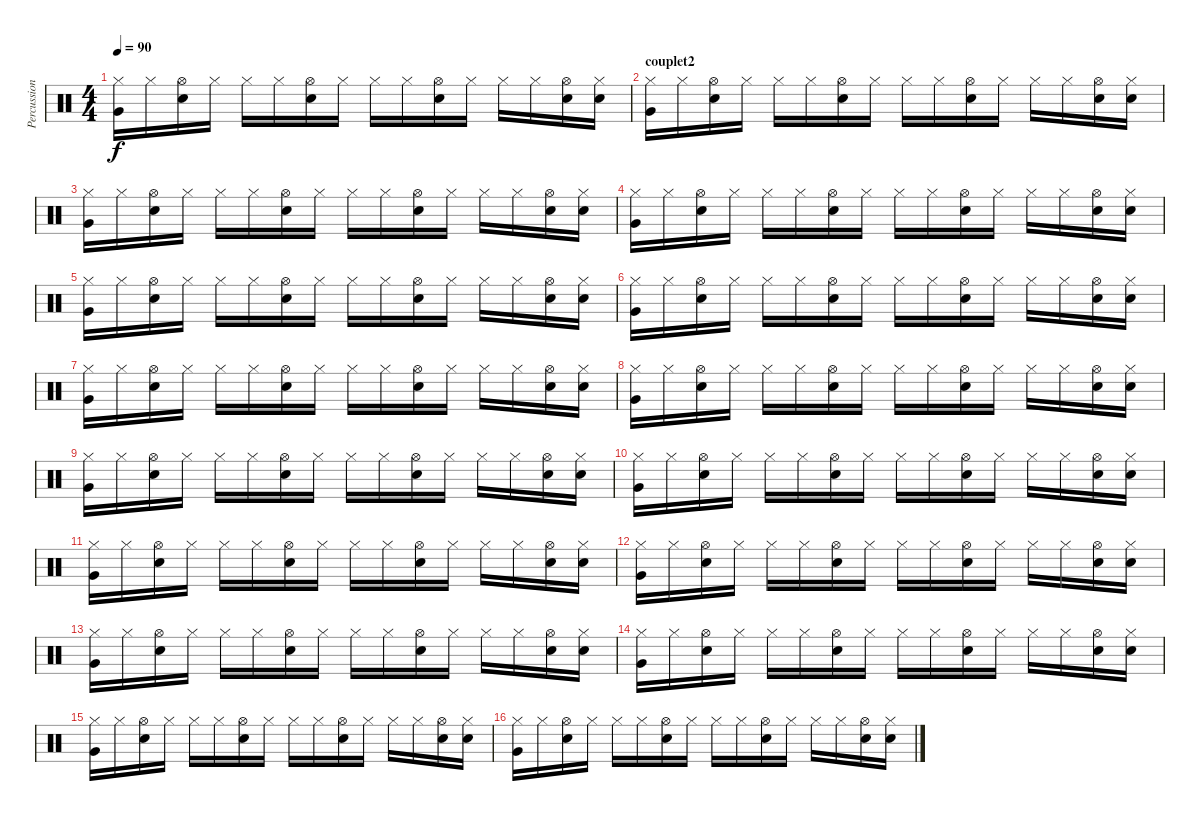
\track ("Percussions" "Percussion") {instrument percussion}
\staff {score}
\articulation defaults
\ts (4 4)
\tempo 90
\clef neutral
\ks aminor
("Hi-Hat (closed)" "Very Low Tom (hit)").16{dy f} "Hi-Hat (closed)".16 ("Snare (hit) 2" "Hi-Hat (open)").16 "Hi-Hat (closed)".16 "Hi-Hat (closed)".16 "Hi-Hat (closed)".16 ("Snare (hit) 2" "Hi-Hat (open)").16 "Hi-Hat (closed)".16 "Hi-Hat (closed)".16 "Hi-Hat (closed)".16 ("Snare (hit) 2" "Hi-Hat (open)").16 "Hi-Hat (closed)".16 "Hi-Hat (closed)".16 "Hi-Hat (closed)".16 ("Snare (hit) 2" "Hi-Hat (open)").16 ("Snare (hit) 2" "Hi-Hat (closed)").16 |
\section ("" "couplet2")
("Hi-Hat (closed)" "Very Low Tom (hit)").16 "Hi-Hat (closed)".16 ("Snare (hit) 2" "Hi-Hat (open)").16 "Hi-Hat (closed)".16 "Hi-Hat (closed)".16 "Hi-Hat (closed)".16 ("Snare (hit) 2" "Hi-Hat (open)").16 "Hi-Hat (closed)".16 "Hi-Hat (closed)".16 "Hi-Hat (closed)".16 ("Snare (hit) 2" "Hi-Hat (open)").16 "Hi-Hat (closed)".16 "Hi-Hat (closed)".16 "Hi-Hat (closed)".16 ("Snare (hit) 2" "Hi-Hat (open)").16 ("Snare (hit) 2" "Hi-Hat (closed)").16 |
("Hi-Hat (closed)" "Very Low Tom (hit)").16 "Hi-Hat (closed)".16 ("Snare (hit) 2" "Hi-Hat (open)").16 "Hi-Hat (closed)".16 "Hi-Hat (closed)".16 "Hi-Hat (closed)".16 ("Snare (hit) 2" "Hi-Hat (open)").16 "Hi-Hat (closed)".16 "Hi-Hat (closed)".16 "Hi-Hat (closed)".16 ("Snare (hit) 2" "Hi-Hat (open)").16 "Hi-Hat (closed)".16 "Hi-Hat (closed)".16 "Hi-Hat (closed)".16 ("Snare (hit) 2" "Hi-Hat (open)").16 ("Snare (hit) 2" "Hi-Hat (closed)").16 |
("Hi-Hat (closed)" "Very Low Tom (hit)").16 "Hi-Hat (closed)".16 ("Snare (hit) 2" "Hi-Hat (open)").16 "Hi-Hat (closed)".16 "Hi-Hat (closed)".16 "Hi-Hat (closed)".16 ("Snare (hit) 2" "Hi-Hat (open)").16 "Hi-Hat (closed)".16 "Hi-Hat (closed)".16 "Hi-Hat (closed)".16 ("Snare (hit) 2" "Hi-Hat (open)").16 "Hi-Hat (closed)".16 "Hi-Hat (closed)".16 "Hi-Hat (closed)".16 ("Snare (hit) 2" "Hi-Hat (open)").16 ("Snare (hit) 2" "Hi-Hat (closed)").16 |
("Hi-Hat (closed)" "Very Low Tom (hit)").16 "Hi-Hat (closed)".16 ("Snare (hit) 2" "Hi-Hat (open)").16 "Hi-Hat (closed)".16 "Hi-Hat (closed)".16 "Hi-Hat (closed)".16 ("Snare (hit) 2" "Hi-Hat (open)").16 "Hi-Hat (closed)".16 "Hi-Hat (closed)".16 "Hi-Hat (closed)".16 ("Snare (hit) 2" "Hi-Hat (open)").16 "Hi-Hat (closed)".16 "Hi-Hat (closed)".16 "Hi-Hat (closed)".16 ("Snare (hit) 2" "Hi-Hat (open)").16 ("Snare (hit) 2" "Hi-Hat (closed)").16 |
("Hi-Hat (closed)" "Very Low Tom (hit)").16 "Hi-Hat (closed)".16 ("Snare (hit) 2" "Hi-Hat (open)").16 "Hi-Hat (closed)".16 "Hi-Hat (closed)".16 "Hi-Hat (closed)".16 ("Snare (hit) 2" "Hi-Hat (open)").16 "Hi-Hat (closed)".16 "Hi-Hat (closed)".16 "Hi-Hat (closed)".16 ("Snare (hit) 2" "Hi-Hat (open)").16 "Hi-Hat (closed)".16 "Hi-Hat (closed)".16 "Hi-Hat (closed)".16 ("Snare (hit) 2" "Hi-Hat (open)").16 ("Snare (hit) 2" "Hi-Hat (closed)").16 |
("Hi-Hat (closed)" "Very Low Tom (hit)").16 "Hi-Hat (closed)".16 ("Snare (hit) 2" "Hi-Hat (open)").16 "Hi-Hat (closed)".16 "Hi-Hat (closed)".16 "Hi-Hat (closed)".16 ("Snare (hit) 2" "Hi-Hat (open)").16 "Hi-Hat (closed)".16 "Hi-Hat (closed)".16 "Hi-Hat (closed)".16 ("Snare (hit) 2" "Hi-Hat (open)").16 "Hi-Hat (closed)".16 "Hi-Hat (closed)".16 "Hi-Hat (closed)".16 ("Snare (hit) 2" "Hi-Hat (open)").16 ("Snare (hit) 2" "Hi-Hat (closed)").16 |
("Hi-Hat (closed)" "Very Low Tom (hit)").16 "Hi-Hat (closed)".16 ("Snare (hit) 2" "Hi-Hat (open)").16 "Hi-Hat (closed)".16 "Hi-Hat (closed)".16 "Hi-Hat (closed)".16 ("Snare (hit) 2" "Hi-Hat (open)").16 "Hi-Hat (closed)".16 "Hi-Hat (closed)".16 "Hi-Hat (closed)".16 ("Snare (hit) 2" "Hi-Hat (open)").16 "Hi-Hat (closed)".16 "Hi-Hat (closed)".16 "Hi-Hat (closed)".16 ("Snare (hit) 2" "Hi-Hat (open)").16 ("Snare (hit) 2" "Hi-Hat (closed)").16 |
("Hi-Hat (closed)" "Very Low Tom (hit)").16 "Hi-Hat (closed)".16 ("Snare (hit) 2" "Hi-Hat (open)").16 "Hi-Hat (closed)".16 "Hi-Hat (closed)".16 "Hi-Hat (closed)".16 ("Snare (hit) 2" "Hi-Hat (open)").16 "Hi-Hat (closed)".16 "Hi-Hat (closed)".16 "Hi-Hat (closed)".16 ("Snare (hit) 2" "Hi-Hat (open)").16 "Hi-Hat (closed)".16 "Hi-Hat (closed)".16 "Hi-Hat (closed)".16 ("Snare (hit) 2" "Hi-Hat (open)").16 ("Snare (hit) 2" "Hi-Hat (closed)").16 |
("Hi-Hat (closed)" "Very Low Tom (hit)").16 "Hi-Hat (closed)".16 ("Snare (hit) 2" "Hi-Hat (open)").16 "Hi-Hat (closed)".16 "Hi-Hat (closed)".16 "Hi-Hat (closed)".16 ("Snare (hit) 2" "Hi-Hat (open)").16 "Hi-Hat (closed)".16 "Hi-Hat (closed)".16 "Hi-Hat (closed)".16 ("Snare (hit) 2" "Hi-Hat (open)").16 "Hi-Hat (closed)".16 "Hi-Hat (closed)".16 "Hi-Hat (closed)".16 ("Snare (hit) 2" "Hi-Hat (open)").16 ("Snare (hit) 2" "Hi-Hat (closed)").16 |
("Hi-Hat (closed)" "Very Low Tom (hit)").16 "Hi-Hat (closed)".16 ("Snare (hit) 2" "Hi-Hat (open)").16 "Hi-Hat (closed)".16 "Hi-Hat (closed)".16 "Hi-Hat (closed)".16 ("Snare (hit) 2" "Hi-Hat (open)").16 "Hi-Hat (closed)".16 "Hi-Hat (closed)".16 "Hi-Hat (closed)".16 ("Snare (hit) 2" "Hi-Hat (open)").16 "Hi-Hat (closed)".16 "Hi-Hat (closed)".16 "Hi-Hat (closed)".16 ("Snare (hit) 2" "Hi-Hat (open)").16 ("Snare (hit) 2" "Hi-Hat (closed)").16 |
("Hi-Hat (closed)" "Very Low Tom (hit)").16 "Hi-Hat (closed)".16 ("Snare (hit) 2" "Hi-Hat (open)").16 "Hi-Hat (closed)".16 "Hi-Hat (closed)".16 "Hi-Hat (closed)".16 ("Snare (hit) 2" "Hi-Hat (open)").16 "Hi-Hat (closed)".16 "Hi-Hat (closed)".16 "Hi-Hat (closed)".16 ("Snare (hit) 2" "Hi-Hat (open)").16 "Hi-Hat (closed)".16 "Hi-Hat (closed)".16 "Hi-Hat (closed)".16 ("Snare (hit) 2" "Hi-Hat (open)").16 ("Snare (hit) 2" "Hi-Hat (closed)").16 |
("Hi-Hat (closed)" "Very Low Tom (hit)").16 "Hi-Hat (closed)".16 ("Snare (hit) 2" "Hi-Hat (open)").16 "Hi-Hat (closed)".16 "Hi-Hat (closed)".16 "Hi-Hat (closed)".16 ("Snare (hit) 2" "Hi-Hat (open)").16 "Hi-Hat (closed)".16 "Hi-Hat (closed)".16 "Hi-Hat (closed)".16 ("Snare (hit) 2" "Hi-Hat (open)").16 "Hi-Hat (closed)".16 "Hi-Hat (closed)".16 "Hi-Hat (closed)".16 ("Snare (hit) 2" "Hi-Hat (open)").16 ("Snare (hit) 2" "Hi-Hat (closed)").16 |
("Hi-Hat (closed)" "Very Low Tom (hit)").16 "Hi-Hat (closed)".16 ("Snare (hit) 2" "Hi-Hat (open)").16 "Hi-Hat (closed)".16 "Hi-Hat (closed)".16 "Hi-Hat (closed)".16 ("Snare (hit) 2" "Hi-Hat (open)").16 "Hi-Hat (closed)".16 "Hi-Hat (closed)".16 "Hi-Hat (closed)".16 ("Snare (hit) 2" "Hi-Hat (open)").16 "Hi-Hat (closed)".16 "Hi-Hat (closed)".16 "Hi-Hat (closed)".16 ("Snare (hit) 2" "Hi-Hat (open)").16 ("Snare (hit) 2" "Hi-Hat (closed)").16 |
("Hi-Hat (closed)" "Very Low Tom (hit)").16 "Hi-Hat (closed)".16 ("Snare (hit) 2" "Hi-Hat (open)").16 "Hi-Hat (closed)".16 "Hi-Hat (closed)".16 "Hi-Hat (closed)".16 ("Snare (hit) 2" "Hi-Hat (open)").16 "Hi-Hat (closed)".16 "Hi-Hat (closed)".16 "Hi-Hat (closed)".16 ("Snare (hit) 2" "Hi-Hat (open)").16 "Hi-Hat (closed)".16 "Hi-Hat (closed)".16 "Hi-Hat (closed)".16 ("Snare (hit) 2" "Hi-Hat (open)").16 ("Snare (hit) 2" "Hi-Hat (closed)").16 |
("Hi-Hat (closed)" "Very Low Tom (hit)").16 "Hi-Hat (closed)".16 ("Snare (hit) 2" "Hi-Hat (open)").16 "Hi-Hat (closed)".16 "Hi-Hat (closed)".16 "Hi-Hat (closed)".16 ("Snare (hit) 2" "Hi-Hat (open)").16 "Hi-Hat (closed)".16 "Hi-Hat (closed)".16 "Hi-Hat (closed)".16 ("Snare (hit) 2" "Hi-Hat (open)").16 "Hi-Hat (closed)".16 "Hi-Hat (closed)".16 "Hi-Hat (closed)".16 ("Snare (hit) 2" "Hi-Hat (open)").16 ("Snare (hit) 2" "Hi-Hat (closed)").16
